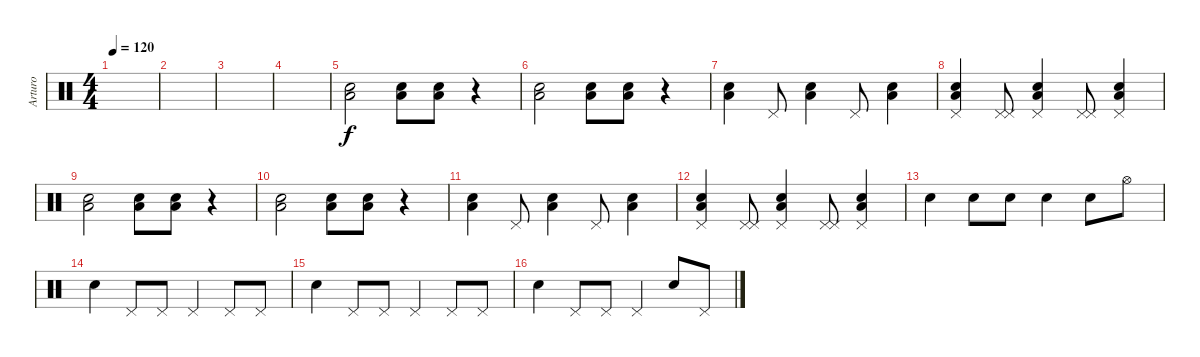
\track ("Arturo" "Arturo") {instrument percussion}
\staff {score}
\articulation defaults
\ts (4 4)
\tempo 120
\clef neutral
\ks c
|
|
|
|
("Low Tom (hit)" "Snare (hit) 2").2 ("Low Tom (hit)" "Snare (hit) 2").8 ("Low Tom (hit)" "Snare (hit) 2").8 r.4 |
("Low Tom (hit)" "Snare (hit) 2").2 ("Low Tom (hit)" "Snare (hit) 2").8 ("Low Tom (hit)" "Snare (hit) 2").8 r.4 |
("Low Tom (hit)" "Snare (hit) 2").4 "Pedal Hi-Hat (hit)".8 ("Low Tom (hit)" "Snare (hit) 2").4 "Pedal Hi-Hat (hit)".8 ("Low Tom (hit)" "Snare (hit) 2").4 |
("Low Tom (hit)" "Snare (hit) 2" "Pedal Hi-Hat (hit)").4 ("Pedal Hi-Hat (hit)" "Pedal Hi-Hat (hit)").8 ("Low Tom (hit)" "Snare (hit) 2" "Pedal Hi-Hat (hit)").4 ("Pedal Hi-Hat (hit)" "Pedal Hi-Hat (hit)").8 ("Low Tom (hit)" "Snare (hit) 2" "Pedal Hi-Hat (hit)").4 |
("Low Tom (hit)" "Snare (hit) 2").2 ("Low Tom (hit)" "Snare (hit) 2").8 ("Low Tom (hit)" "Snare (hit) 2").8 r.4 |
("Low Tom (hit)" "Snare (hit) 2").2 ("Low Tom (hit)" "Snare (hit) 2").8 ("Low Tom (hit)" "Snare (hit) 2").8 r.4 |
("Low Tom (hit)" "Snare (hit) 2").4 "Pedal Hi-Hat (hit)".8 ("Low Tom (hit)" "Snare (hit) 2").4 "Pedal Hi-Hat (hit)".8 ("Low Tom (hit)" "Snare (hit) 2").4 |
("Low Tom (hit)" "Snare (hit) 2" "Pedal Hi-Hat (hit)").4 ("Pedal Hi-Hat (hit)" "Pedal Hi-Hat (hit)").8 ("Low Tom (hit)" "Snare (hit) 2" "Pedal Hi-Hat (hit)").4 ("Pedal Hi-Hat (hit)" "Pedal Hi-Hat (hit)").8 ("Low Tom (hit)" "Snare (hit) 2" "Pedal Hi-Hat (hit)").4 |
"Snare (hit) 2".4 "Electric Snare (hit)".8 "Electric Snare (hit)".8 "Snare (hit) 2".4 "Electric Snare (hit)".8 "Hi-Hat (open)".8 |
"Snare (hit) 2".4 "Pedal Hi-Hat (hit)".8 "Pedal Hi-Hat (hit)".8 "Pedal Hi-Hat (hit)".4 "Pedal Hi-Hat (hit)".8 "Pedal Hi-Hat (hit)".8 |
"Snare (hit) 2".4 "Pedal Hi-Hat (hit)".8 "Pedal Hi-Hat (hit)".8 "Pedal Hi-Hat (hit)".4 "Pedal Hi-Hat (hit)".8 "Pedal Hi-Hat (hit)".8 |
"Snare (hit) 2".4 "Pedal Hi-Hat (hit)".8 "Pedal Hi-Hat (hit)".8 "Pedal Hi-Hat (hit)".4 "Electric Snare (hit)".8 "Pedal Hi-Hat (hit)".8
